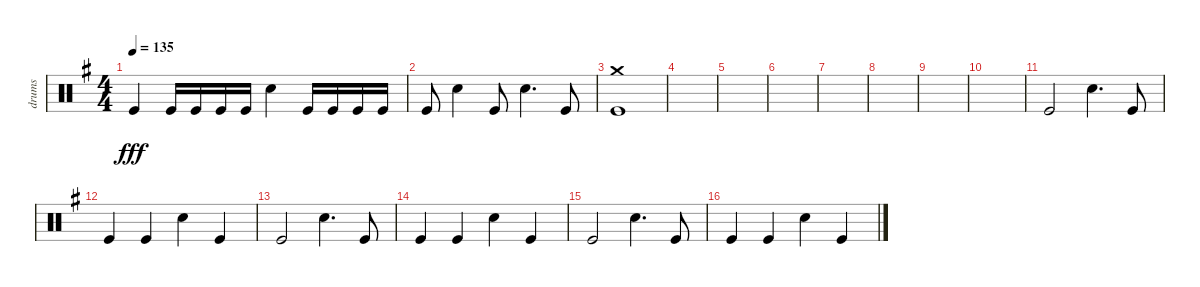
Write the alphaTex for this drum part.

\track ("drums" "drums") {instrument percussion}
\staff {score}
\articulation defaults
\ts (4 4)
\tempo 135
\clef neutral
\ks eminor "Kick (hit)".4{dy fff} "Kick (hit)".16 "Kick (hit)".16 "Kick (hit)".16 "Kick (hit)".16 "Electric Snare (hit)".4 "Kick (hit)".16 "Kick (hit)".16 "Kick (hit)".16 "Kick (hit)".16
|
"Kick (hit)".8 "Electric Snare (hit)".4 "Kick (hit)".8 "Electric Snare (hit)".4{d} "Kick (hit)".8 |
("Crash medium (hit)" "Kick (hit)").1 |
|
|
|
|
|
|
|
"Kick (hit)".2 "Electric Snare (hit)".4{d} "Kick (hit)".8 |
"Kick (hit)".4 "Kick (hit)".4 "Electric Snare (hit)".4 "Kick (hit)".4 |
"Kick (hit)".2 "Electric Snare (hit)".4{d} "Kick (hit)".8 |
"Kick (hit)".4 "Kick (hit)".4 "Electric Snare (hit)".4 "Kick (hit)".4 |
"Kick (hit)".2 "Electric Snare (hit)".4{d} "Kick (hit)".8 |
"Kick (hit)".4 "Kick (hit)".4 "Electric Snare (hit)".4 "Kick (hit)".4
